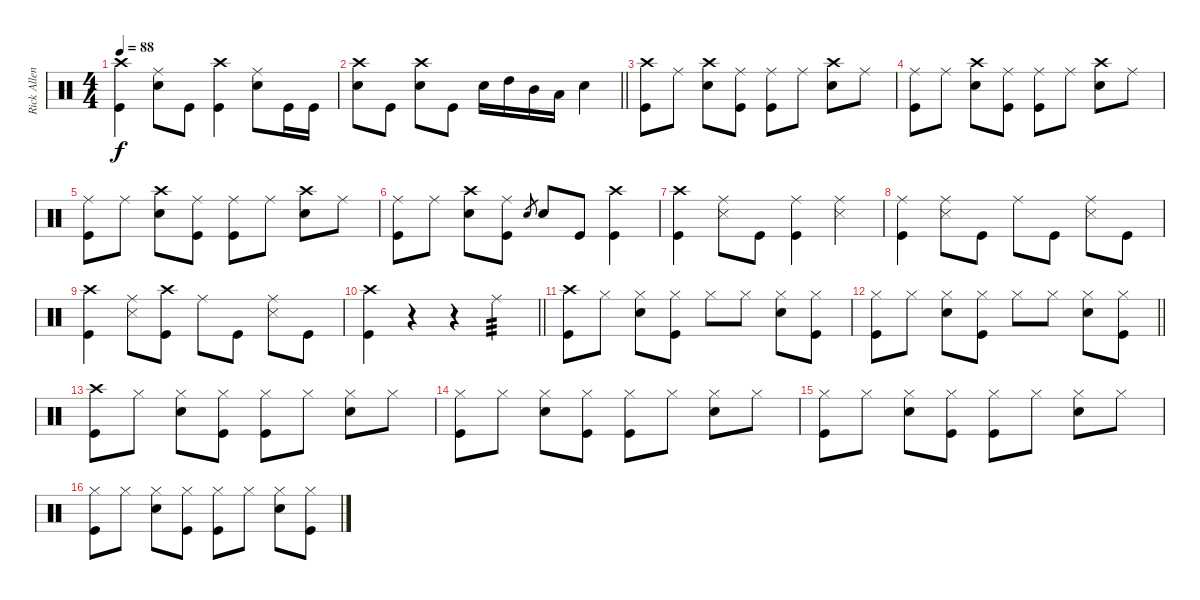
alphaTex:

\track ("Rick Allen" "Rick Allen") {instrument percussion}
\staff {score}
\articulation defaults
\ts (4 4)
\tempo 88
\clef neutral
\ks c
("Crash high (hit)" "Kick (hit)").4{dy f} ("Ride (middle)" "Snare (hit) 2").8 "Kick (hit)".8 ("Crash high (hit)" "Kick (hit)").4 ("Ride (middle)" "Snare (hit) 2").8 "Kick (hit)".16 "Kick (hit)".16 |
\barLineRight lightlight
("Crash high (hit)" "Snare (hit) 2").8 "Kick (hit)".8 ("Crash high (hit)" "Snare (hit) 2").8 "Kick (hit)".8 "Snare (hit) 2".16 "High Tom (hit)".16 "Mid Tom (hit)".16 "Low Tom (hit)".16 "Snare (hit) 2".4 |
("Crash high (hit)" "Kick (hit)").8 "Ride (middle)".8 ("Crash high (hit)" "Snare (hit) 2").8 ("Ride (middle)" "Kick (hit)").8 ("Ride (middle)" "Kick (hit)").8 "Ride (middle)".8 ("Crash high (hit)" "Snare (hit) 2").8 "Ride (middle)".8 |
("Ride (middle)" "Kick (hit)").8 "Ride (middle)".8 ("Crash high (hit)" "Snare (hit) 2").8 ("Ride (middle)" "Kick (hit)").8 ("Ride (middle)" "Kick (hit)").8 "Ride (middle)".8 ("Crash high (hit)" "Snare (hit) 2").8 "Ride (middle)".8 |
("Ride (middle)" "Kick (hit)").8 "Ride (middle)".8 ("Crash high (hit)" "Snare (hit) 2").8 ("Ride (middle)" "Kick (hit)").8 ("Ride (middle)" "Kick (hit)").8 "Ride (middle)".8 ("Crash high (hit)" "Snare (hit) 2").8 "Ride (middle)".8 |
("Ride (middle)" "Kick (hit)").8 "Ride (middle)".8 ("Crash high (hit)" "Snare (hit) 2").8 ("Ride (middle)" "Kick (hit)").8 "Snare (hit) 2".8{gr} "Snare (hit) 2".8 "Kick (hit)".8 ("Crash high (hit)" "Kick (hit)").4 |
("Crash high (hit)" "Kick (hit)").4 ("Ride (middle)" "Metronome (hit)").8 "Kick (hit)".8 ("Ride (middle)" "Kick (hit)").4 ("Ride (middle)" "Metronome (hit)").4 |
("Ride (middle)" "Kick (hit)").4 ("Ride (middle)" "Metronome (hit)").8 "Kick (hit)".8 "Ride (middle)".8 "Kick (hit)".8 ("Ride (middle)" "Metronome (hit)").8 "Kick (hit)".8 |
("Crash high (hit)" "Kick (hit)").4 ("Ride (middle)" "Metronome (hit)").8 ("Crash high (hit)" "Kick (hit)").8 "Ride (middle)".8 "Kick (hit)".8 ("Ride (middle)" "Metronome (hit)").8 "Kick (hit)".8 |
\barLineRight lightlight
("Crash high (hit)" "Kick (hit)").4 r.4 r.4 "Ride (middle)".4{tp 3} |
("Crash high (hit)" "Kick (hit)").8 "Hi-Hat (closed)".8 ("Hi-Hat (closed)" "Snare (hit) 2").8 ("Hi-Hat (closed)" "Kick (hit)").8 "Hi-Hat (closed)".8 "Hi-Hat (closed)".8 ("Hi-Hat (closed)" "Snare (hit) 2").8 ("Hi-Hat (closed)" "Kick (hit)").8 |
\barLineRight lightlight
("Hi-Hat (closed)" "Kick (hit)").8 "Hi-Hat (closed)".8 ("Hi-Hat (closed)" "Snare (hit) 2").8 ("Hi-Hat (closed)" "Kick (hit)").8 "Hi-Hat (closed)".8 "Hi-Hat (closed)".8 ("Hi-Hat (closed)" "Snare (hit) 2").8 ("Hi-Hat (closed)" "Kick (hit)").8 |
("Crash high (hit)" "Kick (hit)").8 "Hi-Hat (closed)".8 ("Hi-Hat (closed)" "Snare (hit) 2").8 ("Hi-Hat (closed)" "Kick (hit)").8 ("Hi-Hat (closed)" "Kick (hit)").8 "Hi-Hat (closed)".8 ("Hi-Hat (closed)" "Snare (hit) 2").8 "Hi-Hat (closed)".8 |
("Hi-Hat (closed)" "Kick (hit)").8 "Hi-Hat (closed)".8 ("Hi-Hat (closed)" "Snare (hit) 2").8 ("Hi-Hat (closed)" "Kick (hit)").8 ("Hi-Hat (closed)" "Kick (hit)").8 "Hi-Hat (closed)".8 ("Hi-Hat (closed)" "Snare (hit) 2").8 "Hi-Hat (closed)".8 |
("Hi-Hat (closed)" "Kick (hit)").8 "Hi-Hat (closed)".8 ("Hi-Hat (closed)" "Snare (hit) 2").8 ("Hi-Hat (closed)" "Kick (hit)").8 ("Hi-Hat (closed)" "Kick (hit)").8 "Hi-Hat (closed)".8 ("Hi-Hat (closed)" "Snare (hit) 2").8 "Hi-Hat (closed)".8 |
("Hi-Hat (closed)" "Kick (hit)").8 "Hi-Hat (closed)".8 ("Hi-Hat (closed)" "Snare (hit) 2").8 ("Hi-Hat (closed)" "Kick (hit)").8 ("Hi-Hat (closed)" "Kick (hit)").8 "Hi-Hat (closed)".8 ("Hi-Hat (closed)" "Snare (hit) 2").8 ("Hi-Hat (closed)" "Kick (hit)").8
